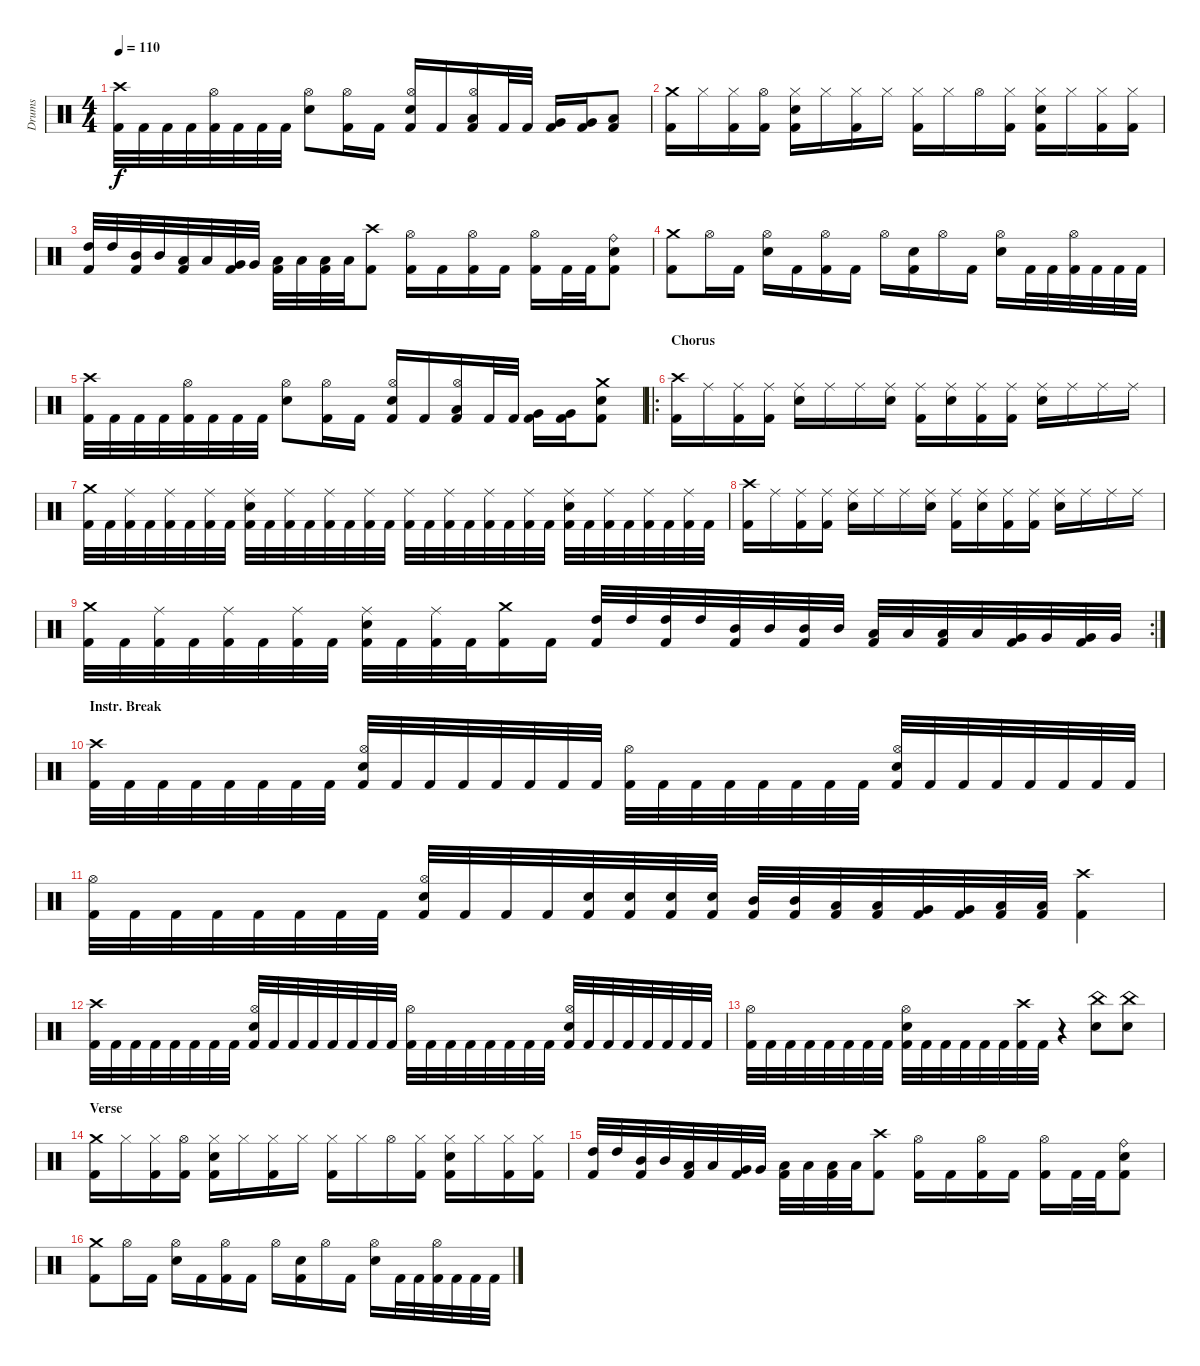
\track ("Drums" "Drums") {instrument percussion}
\staff {score}
\articulation defaults
\ts (4 4)
\tempo 110
\clef neutral
\ks c
("Crash high (hit)" "Kick (hit) 2").32{dy f} "Kick (hit) 2".32 "Kick (hit) 2".32 "Kick (hit) 2".32 ("Hi-Hat (open)" "Kick (hit) 2").32 "Kick (hit) 2".32 "Kick (hit) 2".32 "Kick (hit) 2".32 ("Hi-Hat (open)" "Electric Snare (hit)").8 ("Hi-Hat (open)" "Kick (hit) 2").16 "Kick (hit) 2".16 ("Hi-Hat (open)" "Electric Snare (hit)" "Kick (hit) 2").16 "Kick (hit) 2".16 ("Low Tom (hit)" "Hi-Hat (open)" "Kick (hit) 2").16 "Kick (hit) 2".32 "Kick (hit) 2".32 ("Very Low Tom (hit)" "Kick (hit) 2").16 ("Very Low Tom (hit)" "Kick (hit) 2").16 ("Low Floor Tom (hit)" "Kick (hit) 2").8 |
("Crash medium (hit)" "Kick (hit) 2").16 "Hi-Hat (closed)".16 ("Hi-Hat (closed)" "Kick (hit) 2").16 ("Hi-Hat (open)" "Kick (hit) 2").16 ("Hi-Hat (closed)" "Electric Snare (hit)" "Kick (hit) 2").16 "Hi-Hat (closed)".16 ("Hi-Hat (closed)" "Kick (hit) 2").16 "Hi-Hat (closed)".16 ("Hi-Hat (closed)" "Kick (hit) 2").16 "Hi-Hat (closed)".16 "Hi-Hat (open)".16 ("Hi-Hat (closed)" "Kick (hit) 2").16 ("Hi-Hat (closed)" "Electric Snare (hit)" "Kick (hit) 2").16 "Hi-Hat (closed)".16 ("Hi-Hat (closed)" "Kick (hit) 2").16 ("Hi-Hat (closed)" "Kick (hit) 2").16 |
("High Tom (hit)" "Kick (hit) 2").32 "High Tom (hit)".32 ("Mid Tom (hit)" "Kick (hit) 2").32 "Mid Tom (hit)".32 ("Low Tom (hit)" "Kick (hit) 2").32 "Low Tom (hit)".32 ("Very Low Tom (hit)" "Kick (hit) 2").32 "Very Low Tom (hit)".32 ("Low Floor Tom (hit)" "Kick (hit) 2").32 "Low Floor Tom (hit)".32 ("Low Floor Tom (hit)" "Kick (hit) 2").32 "Low Floor Tom (hit)".32 ("Crash high (hit)" "Kick (hit) 2").8 ("Hi-Hat (open)" "Kick (hit) 2").16 "Kick (hit) 2".16 ("Hi-Hat (open)" "Kick (hit) 2").16 "Kick (hit) 2".16 ("Hi-Hat (open)" "Kick (hit) 2").16 "Kick (hit) 2".32 "Kick (hit) 2".32 ("Ride (bell)" "Electric Snare (hit)" "Kick (hit) 2").8 |
("Crash medium (hit)" "Kick (hit) 2").8 "Hi-Hat (open)".16 "Kick (hit) 2".16 ("Hi-Hat (open)" "Electric Snare (hit)").16 "Kick (hit) 2".16 ("Hi-Hat (open)" "Kick (hit) 2").16 "Kick (hit) 2".16 "Hi-Hat (open)".16 ("Electric Snare (hit)" "Kick (hit) 2").16 "Hi-Hat (open)".16 "Kick (hit) 2".16 ("Hi-Hat (open)" "Electric Snare (hit)").16 "Kick (hit) 2".32 "Kick (hit) 2".32 ("Hi-Hat (open)" "Kick (hit) 2").32 "Kick (hit) 2".32 "Kick (hit) 2".32 "Kick (hit) 2".32 |
("Crash high (hit)" "Kick (hit) 2").32 "Kick (hit) 2".32 "Kick (hit) 2".32 "Kick (hit) 2".32 ("Hi-Hat (open)" "Kick (hit) 2").32 "Kick (hit) 2".32 "Kick (hit) 2".32 "Kick (hit) 2".32 ("Hi-Hat (open)" "Electric Snare (hit)").8 ("Hi-Hat (open)" "Kick (hit) 2").16 "Kick (hit) 2".16 ("Hi-Hat (open)" "Electric Snare (hit)" "Kick (hit) 2").16 "Kick (hit) 2".16 ("Low Tom (hit)" "Hi-Hat (open)" "Kick (hit) 2").16 "Kick (hit) 2".32 "Kick (hit) 2".32 ("Very Low Tom (hit)" "Kick (hit) 2").16 ("Very Low Tom (hit)" "Kick (hit) 2").16 ("Crash medium (hit)" "Electric Snare (hit)" "Kick (hit) 2").8 |
\ro
\section ("" "Chorus ")
("Crash high (hit)" "Kick (hit) 2").16 "Ride (middle)".16 ("Ride (middle)" "Kick (hit) 2").16 ("Ride (middle)" "Kick (hit) 2").16 ("Ride (middle)" "Electric Snare (hit)").16 "Ride (middle)".16 "Ride (middle)".16 ("Ride (middle)" "Electric Snare (hit)").16 ("Ride (middle)" "Kick (hit) 2").16 ("Ride (middle)" "Electric Snare (hit)").16 ("Ride (middle)" "Kick (hit) 2").16 ("Ride (middle)" "Kick (hit) 2").16 ("Ride (middle)" "Electric Snare (hit)").16 "Ride (middle)".16 "Ride (middle)".16 "Ride (middle)".16 |
("Crash medium (hit)" "Kick (hit) 2").32 "Kick (hit) 2".32 ("Ride (middle)" "Kick (hit) 2").32 "Kick (hit) 2".32 ("Ride (middle)" "Kick (hit) 2").32 "Kick (hit) 2".32 ("Ride (middle)" "Kick (hit) 2").32 "Kick (hit) 2".32 ("Ride (middle)" "Electric Snare (hit)" "Kick (hit) 2").32 "Kick (hit) 2".32 ("Ride (middle)" "Kick (hit) 2").32 "Kick (hit) 2".32 ("Ride (middle)" "Kick (hit) 2").32 "Kick (hit) 2".32 ("Ride (middle)" "Kick (hit) 2").32 "Kick (hit) 2".32 ("Ride (middle)" "Kick (hit) 2").32 "Kick (hit) 2".32 ("Ride (middle)" "Kick (hit) 2").32 "Kick (hit) 2".32 ("Ride (middle)" "Kick (hit) 2").32 "Kick (hit) 2".32 ("Ride (middle)" "Kick (hit) 2").32 "Kick (hit) 2".32 ("Ride (middle)" "Electric Snare (hit)" "Kick (hit) 2").32 "Kick (hit) 2".32 ("Ride (middle)" "Kick (hit) 2").32 "Kick (hit) 2".32 ("Ride (middle)" "Kick (hit) 2").32 "Kick (hit) 2".32 ("Ride (middle)" "Kick (hit) 2").32 "Kick (hit) 2".32 |
("Crash high (hit)" "Kick (hit) 2").16 "Ride (middle)".16 ("Ride (middle)" "Kick (hit) 2").16 ("Ride (middle)" "Kick (hit) 2").16 ("Ride (middle)" "Electric Snare (hit)").16 "Ride (middle)".16 "Ride (middle)".16 ("Ride (middle)" "Electric Snare (hit)").16 ("Ride (middle)" "Kick (hit) 2").16 ("Ride (middle)" "Electric Snare (hit)").16 ("Ride (middle)" "Kick (hit) 2").16 ("Ride (middle)" "Kick (hit) 2").16 ("Ride (middle)" "Electric Snare (hit)").16 "Ride (middle)".16 "Ride (middle)".16 "Ride (middle)".16 |
\rc 2
("Crash medium (hit)" "Kick (hit) 2").32 "Kick (hit) 2".32 ("Ride (middle)" "Kick (hit) 2").32 "Kick (hit) 2".32 ("Ride (middle)" "Kick (hit) 2").32 "Kick (hit) 2".32 ("Ride (middle)" "Kick (hit) 2").32 "Kick (hit) 2".32 ("Ride (middle)" "Electric Snare (hit)" "Kick (hit) 2").32 "Kick (hit) 2".32 ("Ride (middle)" "Kick (hit) 2").32 "Kick (hit) 2".32 ("Crash medium (hit)" "Kick (hit) 2").16 "Kick (hit) 2".16 ("High Tom (hit)" "Kick (hit) 2").32 "High Tom (hit)".32 ("High Tom (hit)" "Kick (hit) 2").32 "High Tom (hit)".32 ("Mid Tom (hit)" "Kick (hit) 2").32 "Mid Tom (hit)".32 ("Mid Tom (hit)" "Kick (hit) 2").32 "Mid Tom (hit)".32 ("Low Tom (hit)" "Kick (hit) 2").32 "Low Tom (hit)".32 ("Low Tom (hit)" "Kick (hit) 2").32 "Low Tom (hit)".32 ("Very Low Tom (hit)" "Kick (hit) 2").32 "Very Low Tom (hit)".32 ("Very Low Tom (hit)" "Kick (hit) 2").32 "Very Low Tom (hit)".32 |
\section ("" "Instr. Break")
("Crash high (hit)" "Kick (hit) 2").32 "Kick (hit) 2".32 "Kick (hit) 2".32 "Kick (hit) 2".32 "Kick (hit) 2".32 "Kick (hit) 2".32 "Kick (hit) 2".32 "Kick (hit) 2".32 ("Hi-Hat (open)" "Electric Snare (hit)" "Kick (hit) 2").32 "Kick (hit) 2".32 "Kick (hit) 2".32 "Kick (hit) 2".32 "Kick (hit) 2".32 "Kick (hit) 2".32 "Kick (hit) 2".32 "Kick (hit) 2".32 ("Hi-Hat (open)" "Kick (hit) 2").32 "Kick (hit) 2".32 "Kick (hit) 2".32 "Kick (hit) 2".32 "Kick (hit) 2".32 "Kick (hit) 2".32 "Kick (hit) 2".32 "Kick (hit) 2".32 ("Hi-Hat (open)" "Electric Snare (hit)" "Kick (hit) 2").32 "Kick (hit) 2".32 "Kick (hit) 2".32 "Kick (hit) 2".32 "Kick (hit) 2".32 "Kick (hit) 2".32 "Kick (hit) 2".32 "Kick (hit) 2".32 |
("Hi-Hat (open)" "Kick (hit) 2").32 "Kick (hit) 2".32 "Kick (hit) 2".32 "Kick (hit) 2".32 "Kick (hit) 2".32 "Kick (hit) 2".32 "Kick (hit) 2".32 "Kick (hit) 2".32 ("Hi-Hat (open)" "Electric Snare (hit)" "Kick (hit) 2").32 "Kick (hit) 2".32 "Kick (hit) 2".32 "Kick (hit) 2".32 ("Electric Snare (hit)" "Kick (hit) 2").32 ("Electric Snare (hit)" "Kick (hit) 2").32 ("Electric Snare (hit)" "Kick (hit) 2").32 ("Electric Snare (hit)" "Kick (hit) 2").32 ("Mid Tom (hit)" "Kick (hit) 2").32 ("Mid Tom (hit)" "Kick (hit) 2").32 ("Low Tom (hit)" "Kick (hit) 2").32 ("Low Tom (hit)" "Kick (hit) 2").32 ("Very Low Tom (hit)" "Kick (hit) 2").32 ("Very Low Tom (hit)" "Kick (hit) 2").32 ("Low Floor Tom (hit)" "Kick (hit) 2").32 ("Low Floor Tom (hit)" "Kick (hit) 2").32 ("Crash high (hit)" "Kick (hit) 2").4 |
("Crash high (hit)" "Kick (hit) 2").32 "Kick (hit) 2".32 "Kick (hit) 2".32 "Kick (hit) 2".32 "Kick (hit) 2".32 "Kick (hit) 2".32 "Kick (hit) 2".32 "Kick (hit) 2".32 ("Hi-Hat (open)" "Electric Snare (hit)" "Kick (hit) 2").32 "Kick (hit) 2".32 "Kick (hit) 2".32 "Kick (hit) 2".32 "Kick (hit) 2".32 "Kick (hit) 2".32 "Kick (hit) 2".32 "Kick (hit) 2".32 ("Hi-Hat (open)" "Kick (hit) 2").32 "Kick (hit) 2".32 "Kick (hit) 2".32 "Kick (hit) 2".32 "Kick (hit) 2".32 "Kick (hit) 2".32 "Kick (hit) 2".32 "Kick (hit) 2".32 ("Hi-Hat (open)" "Electric Snare (hit)" "Kick (hit) 2").32 "Kick (hit) 2".32 "Kick (hit) 2".32 "Kick (hit) 2".32 "Kick (hit) 2".32 "Kick (hit) 2".32 "Kick (hit) 2".32 "Kick (hit) 2".32 |
("Hi-Hat (open)" "Kick (hit) 2").32 "Kick (hit) 2".32 "Kick (hit) 2".32 "Kick (hit) 2".32 "Kick (hit) 2".32 "Kick (hit) 2".32 "Kick (hit) 2".32 "Kick (hit) 2".32 ("Hi-Hat (open)" "Electric Snare (hit)" "Kick (hit) 2").32 "Kick (hit) 2".32 "Kick (hit) 2".32 "Kick (hit) 2".32 "Kick (hit) 2".32 "Kick (hit) 2".32 ("Crash high (hit)" "Kick (hit) 2").32 "Kick (hit) 2".32 r.4 ("China (hit)" "Electric Snare (hit)").8 ("China (hit)" "Electric Snare (hit)").8 |
\section ("" "Verse ")
("Crash medium (hit)" "Kick (hit) 2").16 "Hi-Hat (closed)".16 ("Hi-Hat (closed)" "Kick (hit) 2").16 ("Hi-Hat (open)" "Kick (hit) 2").16 ("Hi-Hat (closed)" "Electric Snare (hit)" "Kick (hit) 2").16 "Hi-Hat (closed)".16 ("Hi-Hat (closed)" "Kick (hit) 2").16 "Hi-Hat (closed)".16 ("Hi-Hat (closed)" "Kick (hit) 2").16 "Hi-Hat (closed)".16 "Hi-Hat (open)".16 ("Hi-Hat (closed)" "Kick (hit) 2").16 ("Hi-Hat (closed)" "Electric Snare (hit)" "Kick (hit) 2").16 "Hi-Hat (closed)".16 ("Hi-Hat (closed)" "Kick (hit) 2").16 ("Hi-Hat (closed)" "Kick (hit) 2").16 |
("High Tom (hit)" "Kick (hit) 2").32 "High Tom (hit)".32 ("Mid Tom (hit)" "Kick (hit) 2").32 "Mid Tom (hit)".32 ("Low Tom (hit)" "Kick (hit) 2").32 "Low Tom (hit)".32 ("Very Low Tom (hit)" "Kick (hit) 2").32 "Very Low Tom (hit)".32 ("Low Floor Tom (hit)" "Kick (hit) 2").32 "Low Floor Tom (hit)".32 ("Low Floor Tom (hit)" "Kick (hit) 2").32 "Low Floor Tom (hit)".32 ("Crash high (hit)" "Kick (hit) 2").8 ("Hi-Hat (open)" "Kick (hit) 2").16 "Kick (hit) 2".16 ("Hi-Hat (open)" "Kick (hit) 2").16 "Kick (hit) 2".16 ("Hi-Hat (open)" "Kick (hit) 2").16 "Kick (hit) 2".32 "Kick (hit) 2".32 ("Ride (bell)" "Electric Snare (hit)" "Kick (hit) 2").8 |
("Crash medium (hit)" "Kick (hit) 2").8 "Hi-Hat (open)".16 "Kick (hit) 2".16 ("Hi-Hat (open)" "Electric Snare (hit)").16 "Kick (hit) 2".16 ("Hi-Hat (open)" "Kick (hit) 2").16 "Kick (hit) 2".16 "Hi-Hat (open)".16 ("Electric Snare (hit)" "Kick (hit) 2").16 "Hi-Hat (open)".16 "Kick (hit) 2".16 ("Hi-Hat (open)" "Electric Snare (hit)").16 "Kick (hit) 2".32 "Kick (hit) 2".32 ("Hi-Hat (open)" "Kick (hit) 2").32 "Kick (hit) 2".32 "Kick (hit) 2".32 "Kick (hit) 2".32
